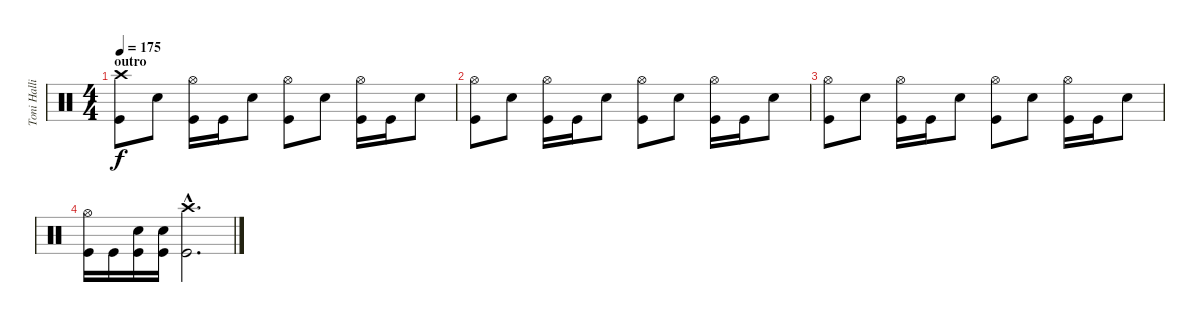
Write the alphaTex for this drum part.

\track ("Toni Hallio" "Toni Halli") {instrument percussion}
\staff {score}
\articulation defaults
\ts (4 4)
\section ("" "outro")
\tempo 175
\clef neutral
\ks c
("Crash high (hit)" "Kick (hit)").8{dy f} "Snare (hit) 2".8 ("Hi-Hat (open)" "Kick (hit)").16 "Kick (hit)".16 "Snare (hit) 2".8 ("Hi-Hat (open)" "Kick (hit)").8 "Snare (hit) 2".8 ("Hi-Hat (open)" "Kick (hit)").16 "Kick (hit)".16 "Snare (hit) 2".8 |
("Hi-Hat (open)" "Kick (hit)").8 "Snare (hit) 2".8 ("Hi-Hat (open)" "Kick (hit)").16 "Kick (hit)".16 "Snare (hit) 2".8 ("Hi-Hat (open)" "Kick (hit)").8 "Snare (hit) 2".8 ("Hi-Hat (open)" "Kick (hit)").16 "Kick (hit)".16 "Snare (hit) 2".8 |
("Hi-Hat (open)" "Kick (hit)").8 "Snare (hit) 2".8 ("Hi-Hat (open)" "Kick (hit)").16 "Kick (hit)".16 "Snare (hit) 2".8 ("Hi-Hat (open)" "Kick (hit)").8 "Snare (hit) 2".8 ("Hi-Hat (open)" "Kick (hit)").16 "Kick (hit)".16 "Snare (hit) 2".8 |
("Hi-Hat (open)" "Kick (hit)").16 "Kick (hit)".16 ("Snare (hit) 2" "Kick (hit)").16 ("Snare (hit) 2" "Kick (hit)").16 ("Crash high (hit)"{hac} "Kick (hit)"{hac}).2{d}
